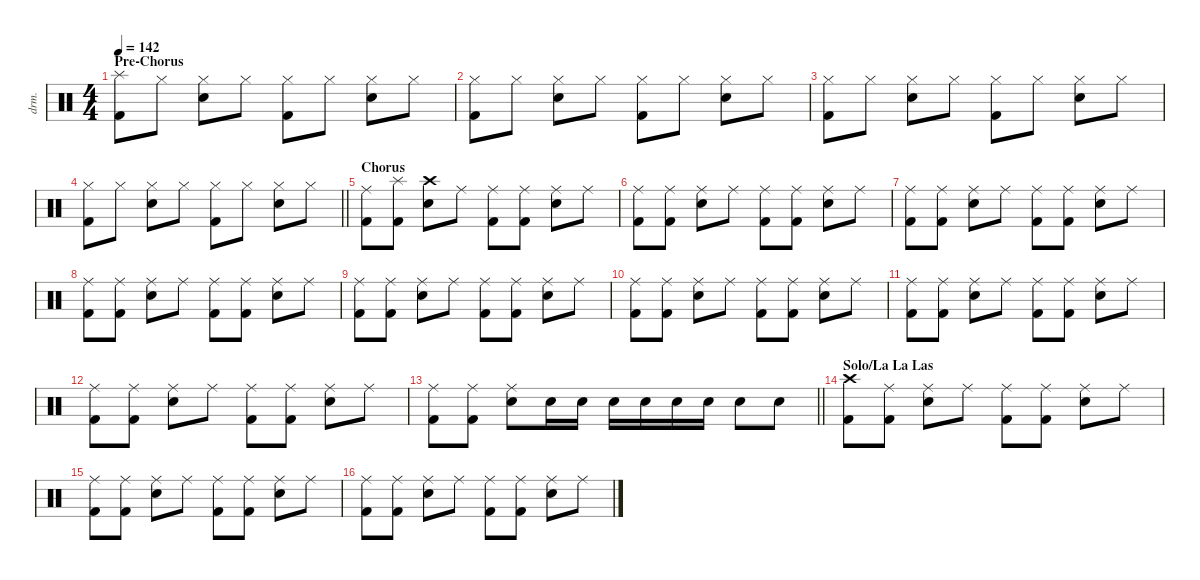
\defaultSystemsLayout 4
\hideDynamics
\bracketExtendMode nobrackets
\otherSystemsTrackNameOrientation horizontal
\track ("Drums" "drm.") {defaultSystemsLayout 4 instrument percussion}
\staff {score}
\articulation defaults
\ts (4 4)
\section ("" "Pre-Chorus")
\tempo 142
\clef neutral
\ks c
("Splash (hit)" "Kick (hit) 2").8{dy f beam Down} "Hi-Hat (closed)".8{beam Down} ("Hi-Hat (closed)" "Snare (hit) 2").8{beam Down} "Hi-Hat (closed)".8{beam Down} ("Hi-Hat (closed)" "Kick (hit) 2").8{beam Down} "Hi-Hat (closed)".8{beam Down} ("Hi-Hat (closed)" "Snare (hit) 2").8{beam Down} "Hi-Hat (closed)".8{beam Down} |
("Hi-Hat (closed)" "Kick (hit) 2").8{beam Down} "Hi-Hat (closed)".8{beam Down} ("Hi-Hat (closed)" "Snare (hit) 2").8{beam Down} "Hi-Hat (closed)".8{beam Down} ("Hi-Hat (closed)" "Kick (hit) 2").8{beam Down} "Hi-Hat (closed)".8{beam Down} ("Hi-Hat (closed)" "Snare (hit) 2").8{beam Down} "Hi-Hat (closed)".8{beam Down} |
("Hi-Hat (closed)" "Kick (hit) 2").8{beam Down} "Hi-Hat (closed)".8{beam Down} ("Hi-Hat (closed)" "Snare (hit) 2").8{beam Down} "Hi-Hat (closed)".8{beam Down} ("Hi-Hat (closed)" "Kick (hit) 2").8{beam Down} "Hi-Hat (closed)".8{beam Down} ("Hi-Hat (closed)" "Snare (hit) 2").8{beam Down} "Hi-Hat (closed)".8{beam Down} |
\barLineRight lightlight
("Hi-Hat (closed)" "Kick (hit) 2").8{beam Down} "Hi-Hat (closed)".8{beam Down} ("Hi-Hat (closed)" "Snare (hit) 2").8{beam Down} "Hi-Hat (closed)".8{beam Down} ("Hi-Hat (closed)" "Kick (hit) 2").8{beam Down} "Hi-Hat (closed)".8{beam Down} ("Hi-Hat (closed)" "Snare (hit) 2").8{beam Down} "Hi-Hat (closed)".8{beam Down} |
\section ("" "Chorus")
("Ride (middle)" "Kick (hit) 2").8{beam Down} ("Splash (hit)" "Kick (hit) 2").8{beam Down} ("Crash high (hit)" "Snare (hit) 2").8{beam Down} "Ride (middle)".8{beam Down} ("Ride (middle)" "Kick (hit) 2").8{beam Down} ("Ride (middle)" "Kick (hit) 2").8{beam Down} ("Ride (middle)" "Snare (hit) 2").8{beam Down} "Ride (middle)".8{beam Down} |
("Ride (middle)" "Kick (hit) 2").8{beam Down} ("Ride (middle)" "Kick (hit) 2").8{beam Down} ("Ride (middle)" "Snare (hit) 2").8{beam Down} "Ride (middle)".8{beam Down} ("Ride (middle)" "Kick (hit) 2").8{beam Down} ("Ride (middle)" "Kick (hit) 2").8{beam Down} ("Ride (middle)" "Snare (hit) 2").8{beam Down} "Ride (middle)".8{beam Down} |
("Ride (middle)" "Kick (hit) 2").8{beam Down} ("Ride (middle)" "Kick (hit) 2").8{beam Down} ("Ride (middle)" "Snare (hit) 2").8{beam Down} "Ride (middle)".8{beam Down} ("Ride (middle)" "Kick (hit) 2").8{beam Down} ("Ride (middle)" "Kick (hit) 2").8{beam Down} ("Ride (middle)" "Snare (hit) 2").8{beam Down} "Ride (middle)".8{beam Down} |
("Ride (middle)" "Kick (hit) 2").8{beam Down} ("Ride (middle)" "Kick (hit) 2").8{beam Down} ("Ride (middle)" "Snare (hit) 2").8{beam Down} "Ride (middle)".8{beam Down} ("Ride (middle)" "Kick (hit) 2").8{beam Down} ("Ride (middle)" "Kick (hit) 2").8{beam Down} ("Ride (middle)" "Snare (hit) 2").8{beam Down} "Ride (middle)".8{beam Down} |
("Ride (middle)" "Kick (hit) 2").8{beam Down} ("Ride (middle)" "Kick (hit) 2").8{beam Down} ("Ride (middle)" "Snare (hit) 2").8{beam Down} "Ride (middle)".8{beam Down} ("Ride (middle)" "Kick (hit) 2").8{beam Down} ("Ride (middle)" "Kick (hit) 2").8{beam Down} ("Ride (middle)" "Snare (hit) 2").8{beam Down} "Ride (middle)".8{beam Down} |
("Ride (middle)" "Kick (hit) 2").8{beam Down} ("Ride (middle)" "Kick (hit) 2").8{beam Down} ("Ride (middle)" "Snare (hit) 2").8{beam Down} "Ride (middle)".8{beam Down} ("Ride (middle)" "Kick (hit) 2").8{beam Down} ("Ride (middle)" "Kick (hit) 2").8{beam Down} ("Ride (middle)" "Snare (hit) 2").8{beam Down} "Ride (middle)".8{beam Down} |
("Ride (middle)" "Kick (hit) 2").8{beam Down} ("Ride (middle)" "Kick (hit) 2").8{beam Down} ("Ride (middle)" "Snare (hit) 2").8{beam Down} "Ride (middle)".8{beam Down} ("Ride (middle)" "Kick (hit) 2").8{beam Down} ("Ride (middle)" "Kick (hit) 2").8{beam Down} ("Ride (middle)" "Snare (hit) 2").8{beam Down} "Ride (middle)".8{beam Down} |
("Ride (middle)" "Kick (hit) 2").8{beam Down} ("Ride (middle)" "Kick (hit) 2").8{beam Down} ("Ride (middle)" "Snare (hit) 2").8{beam Down} "Ride (middle)".8{beam Down} ("Ride (middle)" "Kick (hit) 2").8{beam Down} ("Ride (middle)" "Kick (hit) 2").8{beam Down} ("Ride (middle)" "Snare (hit) 2").8{beam Down} "Ride (middle)".8{beam Down} |
\barLineRight lightlight
("Ride (middle)" "Kick (hit) 2").8{beam Down} ("Ride (middle)" "Kick (hit) 2").8{beam Down} ("Ride (middle)" "Snare (hit) 2").8{beam Down} "Snare (hit) 2".16{beam Down} "Snare (hit) 2".16{beam Down} "Snare (hit) 2".16{beam Down} "Snare (hit) 2".16{beam Down} "Snare (hit) 2".16{beam Down} "Snare (hit) 2".16{beam Down} "Snare (hit) 2".8{beam Down} "Snare (hit) 2".8{beam Down} |
\section ("" "Solo/La La Las")
("Crash high (hit)" "Kick (hit) 2").8{beam Down} ("Ride (middle)" "Kick (hit) 2").8{beam Down} ("Ride (middle)" "Snare (hit) 2").8{beam Down} "Ride (middle)".8{beam Down} ("Ride (middle)" "Kick (hit) 2").8{beam Down} ("Ride (middle)" "Kick (hit) 2").8{beam Down} ("Ride (middle)" "Snare (hit) 2").8{beam Down} "Ride (middle)".8{beam Down} |
("Ride (middle)" "Kick (hit) 2").8{beam Down} ("Ride (middle)" "Kick (hit) 2").8{beam Down} ("Ride (middle)" "Snare (hit) 2").8{beam Down} "Ride (middle)".8{beam Down} ("Ride (middle)" "Kick (hit) 2").8{beam Down} ("Ride (middle)" "Kick (hit) 2").8{beam Down} ("Ride (middle)" "Snare (hit) 2").8{beam Down} "Ride (middle)".8{beam Down} |
("Ride (middle)" "Kick (hit) 2").8{beam Down} ("Ride (middle)" "Kick (hit) 2").8{beam Down} ("Ride (middle)" "Snare (hit) 2").8{beam Down} "Ride (middle)".8{beam Down} ("Ride (middle)" "Kick (hit) 2").8{beam Down} ("Ride (middle)" "Kick (hit) 2").8{beam Down} ("Ride (middle)" "Snare (hit) 2").8{beam Down} "Ride (middle)".8{beam Down}
